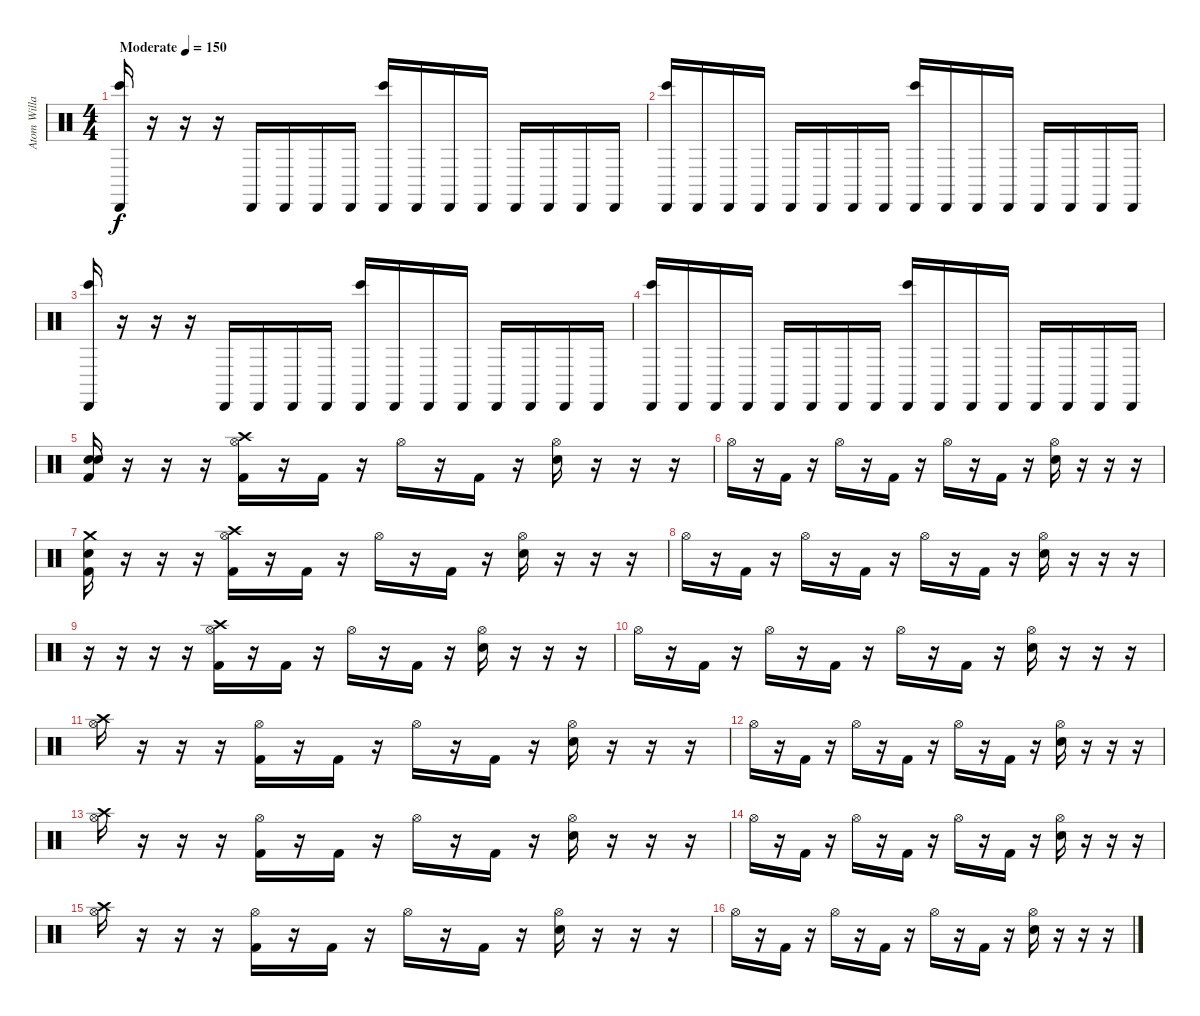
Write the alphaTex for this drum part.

\track ("Atom Willard, drums" "Atom Willa") {instrument percussion}
\staff {score}
\articulation defaults
\ts (4 4)
\tempo (150 "Moderate")
\clef neutral
\ks c
("Cabasa (hit)" "Bongo High (hit)").16{dy f} r.16 r.16 r.16 "Cabasa (hit)".16 "Cabasa (hit)".16 "Cabasa (hit)".16 "Cabasa (hit)".16 ("Cabasa (hit)" "Bongo High (hit)").16 "Cabasa (hit)".16 "Cabasa (hit)".16 "Cabasa (hit)".16 "Cabasa (hit)".16 "Cabasa (hit)".16 "Cabasa (hit)".16 "Cabasa (hit)".16 |
("Cabasa (hit)" "Bongo High (hit)").16 "Cabasa (hit)".16 "Cabasa (hit)".16 "Cabasa (hit)".16 "Cabasa (hit)".16 "Cabasa (hit)".16 "Cabasa (hit)".16 "Cabasa (hit)".16 ("Cabasa (hit)" "Bongo High (hit)").16 "Cabasa (hit)".16 "Cabasa (hit)".16 "Cabasa (hit)".16 "Cabasa (hit)".16 "Cabasa (hit)".16 "Cabasa (hit)".16 "Cabasa (hit)".16 |
("Cabasa (hit)" "Bongo High (hit)").16 r.16 r.16 r.16 "Cabasa (hit)".16 "Cabasa (hit)".16 "Cabasa (hit)".16 "Cabasa (hit)".16 ("Cabasa (hit)" "Bongo High (hit)").16 "Cabasa (hit)".16 "Cabasa (hit)".16 "Cabasa (hit)".16 "Cabasa (hit)".16 "Cabasa (hit)".16 "Cabasa (hit)".16 "Cabasa (hit)".16 |
("Cabasa (hit)" "Bongo High (hit)").16 "Cabasa (hit)".16 "Cabasa (hit)".16 "Cabasa (hit)".16 "Cabasa (hit)".16 "Cabasa (hit)".16 "Cabasa (hit)".16 "Cabasa (hit)".16 ("Cabasa (hit)" "Bongo High (hit)").16 "Cabasa (hit)".16 "Cabasa (hit)".16 "Cabasa (hit)".16 "Cabasa (hit)".16 "Cabasa (hit)".16 "Cabasa (hit)".16 "Cabasa (hit)".16 |
("Electric Snare (hit)" "Electric Snare (hit)" "Kick (hit) 2").16 r.16 r.16 r.16 ("Crash high (hit)" "Hi-Hat (open)" "Kick (hit) 2").16 r.16 "Kick (hit) 2".16 r.16 "Hi-Hat (open)".16 r.16 "Kick (hit) 2".16 r.16 ("Hi-Hat (open)" "Electric Snare (hit)").16 r.16 r.16 r.16 |
"Hi-Hat (open)".16 r.16 "Kick (hit) 2".16 r.16 "Hi-Hat (open)".16 r.16 "Kick (hit) 2".16 r.16 "Hi-Hat (open)".16 r.16 "Kick (hit) 2".16 r.16 ("Hi-Hat (open)" "Electric Snare (hit)").16 r.16 r.16 r.16 |
("Crash medium (hit)" "Electric Snare (hit)" "Kick (hit) 2").16 r.16 r.16 r.16 ("Crash high (hit)" "Hi-Hat (open)" "Kick (hit) 2").16 r.16 "Kick (hit) 2".16 r.16 "Hi-Hat (open)".16 r.16 "Kick (hit) 2".16 r.16 ("Hi-Hat (open)" "Electric Snare (hit)").16 r.16 r.16 r.16 |
"Hi-Hat (open)".16 r.16 "Kick (hit) 2".16 r.16 "Hi-Hat (open)".16 r.16 "Kick (hit) 2".16 r.16 "Hi-Hat (open)".16 r.16 "Kick (hit) 2".16 r.16 ("Hi-Hat (open)" "Electric Snare (hit)").16 r.16 r.16 r.16 |
r.16 r.16 r.16 r.16 ("Crash high (hit)" "Hi-Hat (open)" "Kick (hit) 2").16 r.16 "Kick (hit) 2".16 r.16 "Hi-Hat (open)".16 r.16 "Kick (hit) 2".16 r.16 ("Hi-Hat (open)" "Electric Snare (hit)").16 r.16 r.16 r.16 |
"Hi-Hat (open)".16 r.16 "Kick (hit) 2".16 r.16 "Hi-Hat (open)".16 r.16 "Kick (hit) 2".16 r.16 "Hi-Hat (open)".16 r.16 "Kick (hit) 2".16 r.16 ("Hi-Hat (open)" "Electric Snare (hit)").16 r.16 r.16 r.16 |
("Crash high (hit)" "Hi-Hat (open)").16 r.16 r.16 r.16 ("Hi-Hat (open)" "Kick (hit) 2").16 r.16 "Kick (hit) 2".16 r.16 "Hi-Hat (open)".16 r.16 "Kick (hit) 2".16 r.16 ("Hi-Hat (open)" "Electric Snare (hit)").16 r.16 r.16 r.16 |
"Hi-Hat (open)".16 r.16 "Kick (hit) 2".16 r.16 "Hi-Hat (open)".16 r.16 "Kick (hit) 2".16 r.16 "Hi-Hat (open)".16 r.16 "Kick (hit) 2".16 r.16 ("Hi-Hat (open)" "Electric Snare (hit)").16 r.16 r.16 r.16 |
("Crash high (hit)" "Hi-Hat (open)").16 r.16 r.16 r.16 ("Hi-Hat (open)" "Kick (hit) 2").16 r.16 "Kick (hit) 2".16 r.16 "Hi-Hat (open)".16 r.16 "Kick (hit) 2".16 r.16 ("Hi-Hat (open)" "Electric Snare (hit)").16 r.16 r.16 r.16 |
"Hi-Hat (open)".16 r.16 "Kick (hit) 2".16 r.16 "Hi-Hat (open)".16 r.16 "Kick (hit) 2".16 r.16 "Hi-Hat (open)".16 r.16 "Kick (hit) 2".16 r.16 ("Hi-Hat (open)" "Electric Snare (hit)").16 r.16 r.16 r.16 |
("Crash high (hit)" "Hi-Hat (open)").16 r.16 r.16 r.16 ("Hi-Hat (open)" "Kick (hit) 2").16 r.16 "Kick (hit) 2".16 r.16 "Hi-Hat (open)".16 r.16 "Kick (hit) 2".16 r.16 ("Hi-Hat (open)" "Electric Snare (hit)").16 r.16 r.16 r.16 |
"Hi-Hat (open)".16 r.16 "Kick (hit) 2".16 r.16 "Hi-Hat (open)".16 r.16 "Kick (hit) 2".16 r.16 "Hi-Hat (open)".16 r.16 "Kick (hit) 2".16 r.16 ("Hi-Hat (open)" "Electric Snare (hit)").16 r.16 r.16 r.16
